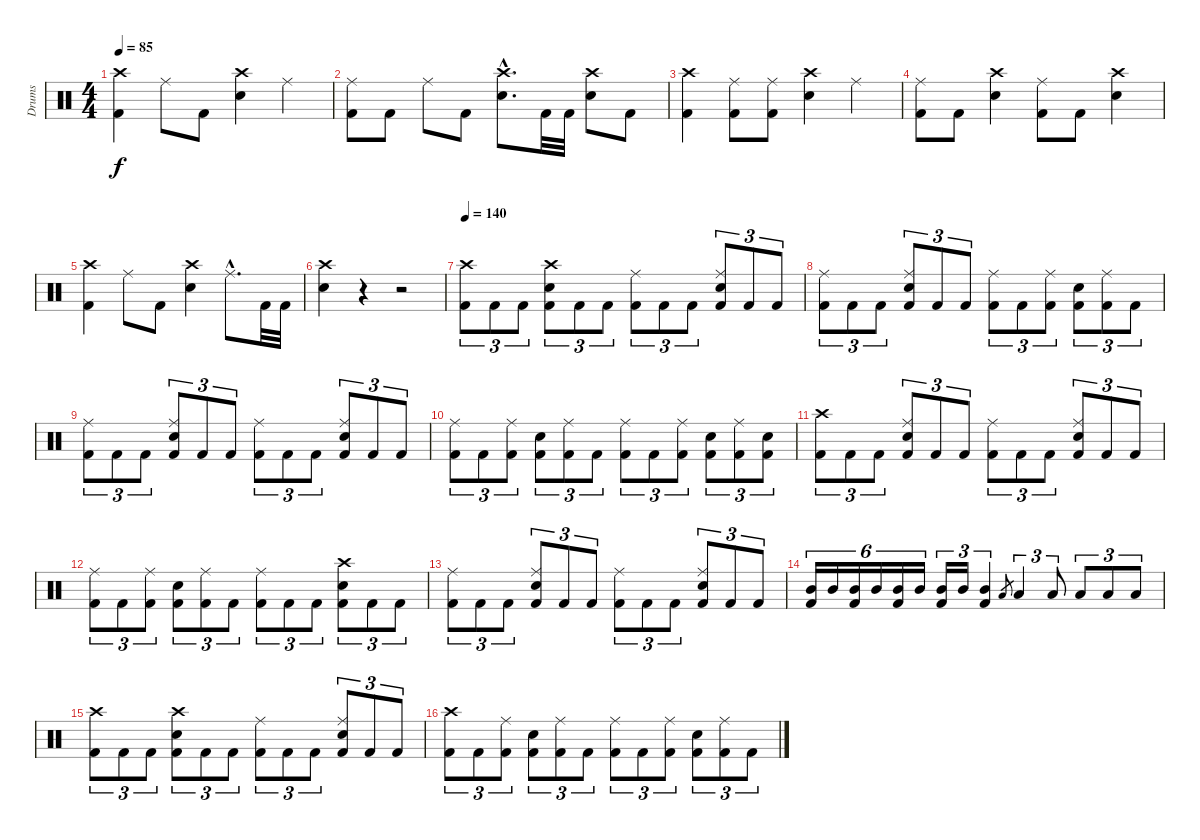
\track ("Drums" "Drums") {instrument percussion}
\staff {score}
\articulation defaults
\ts (4 4)
\tempo 85
\clef neutral
\ks c
("Crash high (hit)" "Kick (hit) 2").4{dy f} "Ride (middle)".8 "Kick (hit) 2".8 ("Crash high (hit)" "Electric Snare (hit)").4 "Ride (middle)".4 |
("Ride (middle)" "Kick (hit) 2").8 "Kick (hit) 2".8 "Ride (middle)".8 "Kick (hit) 2".8 ("Crash high (hit)"{hac} "Electric Snare (hit)"{hac}).8{d} "Kick (hit) 2".32 "Kick (hit) 2".32 ("Crash high (hit)" "Electric Snare (hit)").8 "Kick (hit) 2".8 |
("Crash high (hit)" "Kick (hit) 2").4 ("Ride (middle)" "Kick (hit) 2").8 ("Ride (middle)" "Kick (hit) 2").8 ("Crash high (hit)" "Electric Snare (hit)").4 "Ride (middle)".4 |
("Ride (middle)" "Kick (hit) 2").8 "Kick (hit) 2".8 ("Crash high (hit)" "Electric Snare (hit)").4 ("Ride (middle)" "Kick (hit) 2").8 "Kick (hit) 2".8 ("Crash high (hit)" "Electric Snare (hit)").4 |
("Crash high (hit)" "Kick (hit) 2").4 "Ride (middle)".8 "Kick (hit) 2".8 ("Crash high (hit)" "Electric Snare (hit)").4 "Ride (middle)"{hac}.8{d} "Kick (hit) 2".32 "Kick (hit) 2".32 |
("Crash high (hit)" "Electric Snare (hit)").4 r.4 r.2 |
\tempo 140
("Crash high (hit)" "Kick (hit) 2").8{tu (3 2)} "Kick (hit) 2".8{tu (3 2)} "Kick (hit) 2".8{tu (3 2)} ("Crash high (hit)" "Electric Snare (hit)" "Kick (hit) 2").8{tu (3 2)} "Kick (hit) 2".8{tu (3 2)} "Kick (hit) 2".8{tu (3 2)} ("Ride (middle)" "Kick (hit) 2").8{tu (3 2)} "Kick (hit) 2".8{tu (3 2)} "Kick (hit) 2".8{tu (3 2)} ("Ride (middle)" "Electric Snare (hit)" "Kick (hit) 2").8{tu (3 2)} "Kick (hit) 2".8{tu (3 2)} "Kick (hit) 2".8{tu (3 2)} |
("Ride (middle)" "Kick (hit) 2").8{tu (3 2)} "Kick (hit) 2".8{tu (3 2)} "Kick (hit) 2".8{tu (3 2)} ("Ride (middle)" "Electric Snare (hit)" "Kick (hit) 2").8{tu (3 2)} "Kick (hit) 2".8{tu (3 2)} "Kick (hit) 2".8{tu (3 2)} ("Ride (middle)" "Kick (hit) 2").8{tu (3 2)} "Kick (hit) 2".8{tu (3 2)} ("Ride (middle)" "Kick (hit) 2").8{tu (3 2)} ("Electric Snare (hit)" "Kick (hit) 2").8{tu (3 2)} ("Ride (middle)" "Kick (hit) 2").8{tu (3 2)} "Kick (hit) 2".8{tu (3 2)} |
("Ride (middle)" "Kick (hit) 2").8{tu (3 2)} "Kick (hit) 2".8{tu (3 2)} "Kick (hit) 2".8{tu (3 2)} ("Ride (middle)" "Electric Snare (hit)" "Kick (hit) 2").8{tu (3 2)} "Kick (hit) 2".8{tu (3 2)} "Kick (hit) 2".8{tu (3 2)} ("Ride (middle)" "Kick (hit) 2").8{tu (3 2)} "Kick (hit) 2".8{tu (3 2)} "Kick (hit) 2".8{tu (3 2)} ("Ride (middle)" "Electric Snare (hit)" "Kick (hit) 2").8{tu (3 2)} "Kick (hit) 2".8{tu (3 2)} "Kick (hit) 2".8{tu (3 2)} |
("Ride (middle)" "Kick (hit) 2").8{tu (3 2)} "Kick (hit) 2".8{tu (3 2)} ("Ride (middle)" "Kick (hit) 2").8{tu (3 2)} ("Electric Snare (hit)" "Kick (hit) 2").8{tu (3 2)} ("Ride (middle)" "Kick (hit) 2").8{tu (3 2)} "Kick (hit) 2".8{tu (3 2)} ("Ride (middle)" "Kick (hit) 2").8{tu (3 2)} "Kick (hit) 2".8{tu (3 2)} ("Ride (middle)" "Kick (hit) 2").8{tu (3 2)} ("Electric Snare (hit)" "Kick (hit) 2").8{tu (3 2)} ("Ride (middle)" "Kick (hit) 2").8{tu (3 2)} ("Electric Snare (hit)" "Kick (hit) 2").8{tu (3 2)} |
("Crash high (hit)" "Kick (hit) 2").8{tu (3 2)} "Kick (hit) 2".8{tu (3 2)} "Kick (hit) 2".8{tu (3 2)} ("Ride (middle)" "Electric Snare (hit)" "Kick (hit) 2").8{tu (3 2)} "Kick (hit) 2".8{tu (3 2)} "Kick (hit) 2".8{tu (3 2)} ("Ride (middle)" "Kick (hit) 2").8{tu (3 2)} "Kick (hit) 2".8{tu (3 2)} "Kick (hit) 2".8{tu (3 2)} ("Ride (middle)" "Electric Snare (hit)" "Kick (hit) 2").8{tu (3 2)} "Kick (hit) 2".8{tu (3 2)} "Kick (hit) 2".8{tu (3 2)} |
("Ride (middle)" "Kick (hit) 2").8{tu (3 2)} "Kick (hit) 2".8{tu (3 2)} ("Ride (middle)" "Kick (hit) 2").8{tu (3 2)} ("Electric Snare (hit)" "Kick (hit) 2").8{tu (3 2)} ("Ride (middle)" "Kick (hit) 2").8{tu (3 2)} "Kick (hit) 2".8{tu (3 2)} ("Ride (middle)" "Kick (hit) 2").8{tu (3 2)} "Kick (hit) 2".8{tu (3 2)} "Kick (hit) 2".8{tu (3 2)} ("Crash high (hit)" "Electric Snare (hit)" "Kick (hit) 2").8{tu (3 2)} "Kick (hit) 2".8{tu (3 2)} "Kick (hit) 2".8{tu (3 2)} |
("Ride (middle)" "Kick (hit) 2").8{tu (3 2)} "Kick (hit) 2".8{tu (3 2)} "Kick (hit) 2".8{tu (3 2)} ("Ride (middle)" "Electric Snare (hit)" "Kick (hit) 2").8{tu (3 2)} "Kick (hit) 2".8{tu (3 2)} "Kick (hit) 2".8{tu (3 2)} ("Ride (middle)" "Kick (hit) 2").8{tu (3 2)} "Kick (hit) 2".8{tu (3 2)} "Kick (hit) 2".8{tu (3 2)} ("Ride (middle)" "Electric Snare (hit)" "Kick (hit) 2").8{tu (3 2)} "Kick (hit) 2".8{tu (3 2)} "Kick (hit) 2".8{tu (3 2)} |
("Mid Tom (hit)" "Kick (hit) 2").16{tu (6 4)} "Mid Tom (hit)".16{tu (6 4)} ("Mid Tom (hit)" "Kick (hit) 2").16{tu (6 4)} "Mid Tom (hit)".16{tu (6 4)} ("Mid Tom (hit)" "Kick (hit) 2").16{tu (6 4)} "Mid Tom (hit)".16{tu (6 4)} ("Mid Tom (hit)" "Kick (hit) 2").16{tu (3 2)} "Mid Tom (hit)".16{tu (3 2)} ("Mid Tom (hit)" "Kick (hit) 2").4{tu (3 2)} "Low Tom (hit)".8{gr} "Low Tom (hit)".4{tu (3 2)} "Low Tom (hit)".8{tu (3 2)} "Low Tom (hit)".8{tu (3 2)} "Low Tom (hit)".8{tu (3 2)} "Low Tom (hit)".8{tu (3 2)} |
("Crash high (hit)" "Kick (hit) 2").8{tu (3 2)} "Kick (hit) 2".8{tu (3 2)} "Kick (hit) 2".8{tu (3 2)} ("Crash high (hit)" "Electric Snare (hit)" "Kick (hit) 2").8{tu (3 2)} "Kick (hit) 2".8{tu (3 2)} "Kick (hit) 2".8{tu (3 2)} ("Ride (middle)" "Kick (hit) 2").8{tu (3 2)} "Kick (hit) 2".8{tu (3 2)} "Kick (hit) 2".8{tu (3 2)} ("Ride (middle)" "Electric Snare (hit)" "Kick (hit) 2").8{tu (3 2)} "Kick (hit) 2".8{tu (3 2)} "Kick (hit) 2".8{tu (3 2)} |
("Crash high (hit)" "Kick (hit) 2").8{tu (3 2)} "Kick (hit) 2".8{tu (3 2)} ("Ride (middle)" "Kick (hit) 2").8{tu (3 2)} ("Electric Snare (hit)" "Kick (hit) 2").8{tu (3 2)} ("Ride (middle)" "Kick (hit) 2").8{tu (3 2)} "Kick (hit) 2".8{tu (3 2)} ("Ride (middle)" "Kick (hit) 2").8{tu (3 2)} "Kick (hit) 2".8{tu (3 2)} ("Ride (middle)" "Kick (hit) 2").8{tu (3 2)} ("Electric Snare (hit)" "Kick (hit) 2").8{tu (3 2)} ("Ride (middle)" "Kick (hit) 2").8{tu (3 2)} "Kick (hit) 2".8{tu (3 2)}
